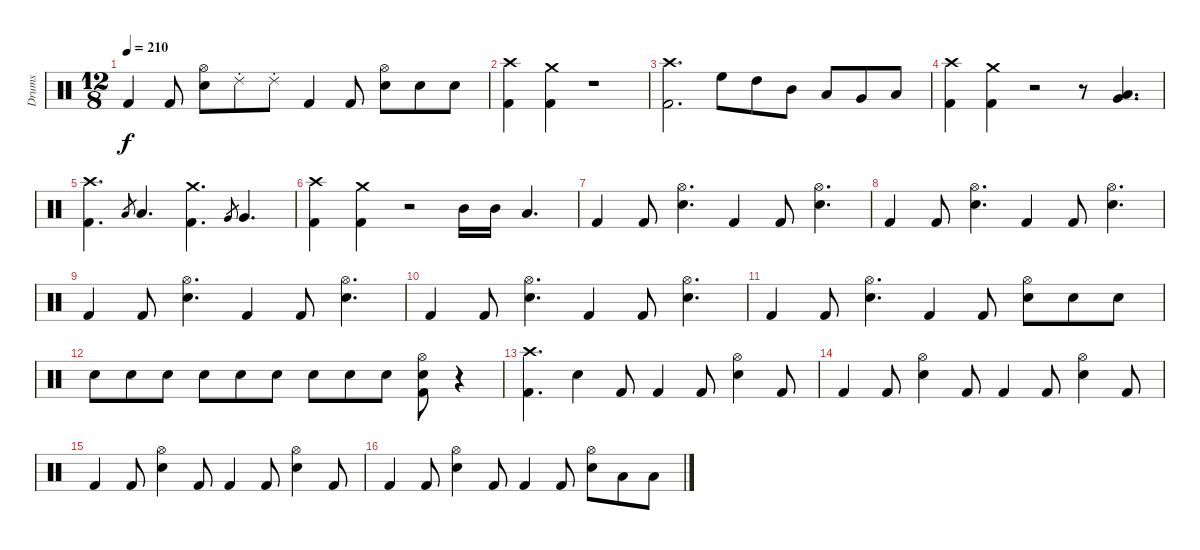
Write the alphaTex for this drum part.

\track ("Drums" "Drums") {instrument percussion}
\staff {score}
\articulation defaults
\ts (12 8)
\tempo 210
\clef neutral
\ks c "Kick (hit) 2".4{dy f} "Kick (hit) 2".8
("Snare (hit) 2" "Hi-Hat (open)").8 "Ride (choke) 2".8 "Ride (choke) 2".8 "Kick (hit) 2".4 "Kick (hit) 2".8 ("Snare (hit) 2" "Hi-Hat (open)").8 "Snare (hit) 2".8 "Snare (hit) 2".8 |
("Kick (hit) 2" "Crash high (hit)").4 ("Kick (hit) 2" "Crash medium (hit)").4 r.1 |
("Kick (hit) 2" "Crash high (hit)").2{d} "High Floor Tom (hit)".8 "High Tom (hit)".8 "Mid Tom (hit)".8 "Low Tom (hit)".8 "Very Low Tom (hit)".8 "Low Floor Tom (hit)".8 |
("Kick (hit) 2" "Crash high (hit)").4 ("Kick (hit) 2" "Crash medium (hit)").4 r.2 r.8 ("Low Tom (hit)" "Very Low Tom (hit)").4{d} |
("Kick (hit) 2" "Crash high (hit)").4{d} "Low Tom (hit)".8{gr} "Low Tom (hit)".4{d} ("Kick (hit) 2" "Crash medium (hit)").4{d} "Very Low Tom (hit)".8{gr} "Very Low Tom (hit)".4{d} |
("Kick (hit) 2" "Crash high (hit)").4 ("Kick (hit) 2" "Crash medium (hit)").4 r.2 "Mid Tom (hit)".16 "Mid Tom (hit)".16 "Low Tom (hit)".4{d} |
"Kick (hit) 2".4 "Kick (hit) 2".8 ("Snare (hit) 2" "Hi-Hat (open)").4{d} "Kick (hit) 2".4 "Kick (hit) 2".8 ("Snare (hit) 2" "Hi-Hat (open)").4{d} |
"Kick (hit) 2".4 "Kick (hit) 2".8 ("Snare (hit) 2" "Hi-Hat (open)").4{d} "Kick (hit) 2".4 "Kick (hit) 2".8 ("Snare (hit) 2" "Hi-Hat (open)").4{d} |
"Kick (hit) 2".4 "Kick (hit) 2".8 ("Snare (hit) 2" "Hi-Hat (open)").4{d} "Kick (hit) 2".4 "Kick (hit) 2".8 ("Snare (hit) 2" "Hi-Hat (open)").4{d} |
"Kick (hit) 2".4 "Kick (hit) 2".8 ("Snare (hit) 2" "Hi-Hat (open)").4{d} "Kick (hit) 2".4 "Kick (hit) 2".8 ("Snare (hit) 2" "Hi-Hat (open)").4{d} |
"Kick (hit) 2".4 "Kick (hit) 2".8 ("Snare (hit) 2" "Hi-Hat (open)").4{d} "Kick (hit) 2".4 "Kick (hit) 2".8 ("Snare (hit) 2" "Hi-Hat (open)").8 "Snare (hit) 2".8 "Snare (hit) 2".8 |
"Snare (hit) 2".8 "Snare (hit) 2".8 "Snare (hit) 2".8 "Snare (hit) 2".8 "Snare (hit) 2".8 "Snare (hit) 2".8 "Snare (hit) 2".8 "Snare (hit) 2".8 "Snare (hit) 2".8 ("Kick (hit) 2" "Snare (hit) 2" "Hi-Hat (open)").8 r.4 |
("Kick (hit) 2" "Crash high (hit)").4{d} "Snare (hit) 2".4 "Kick (hit) 2".8 "Kick (hit) 2".4 "Kick (hit) 2".8 ("Snare (hit) 2" "Hi-Hat (open)").4 "Kick (hit) 2".8 |
"Kick (hit) 2".4 "Kick (hit) 2".8 ("Snare (hit) 2" "Hi-Hat (open)").4 "Kick (hit) 2".8 "Kick (hit) 2".4 "Kick (hit) 2".8 ("Snare (hit) 2" "Hi-Hat (open)").4 "Kick (hit) 2".8 |
"Kick (hit) 2".4 "Kick (hit) 2".8 ("Snare (hit) 2" "Hi-Hat (open)").4 "Kick (hit) 2".8 "Kick (hit) 2".4 "Kick (hit) 2".8 ("Snare (hit) 2" "Hi-Hat (open)").4 "Kick (hit) 2".8 |
"Kick (hit) 2".4 "Kick (hit) 2".8 ("Snare (hit) 2" "Hi-Hat (open)").4 "Kick (hit) 2".8 "Kick (hit) 2".4 "Kick (hit) 2".8 ("Snare (hit) 2" "Hi-Hat (open)").8 "Low Tom (hit)".8 "Low Tom (hit)".8
